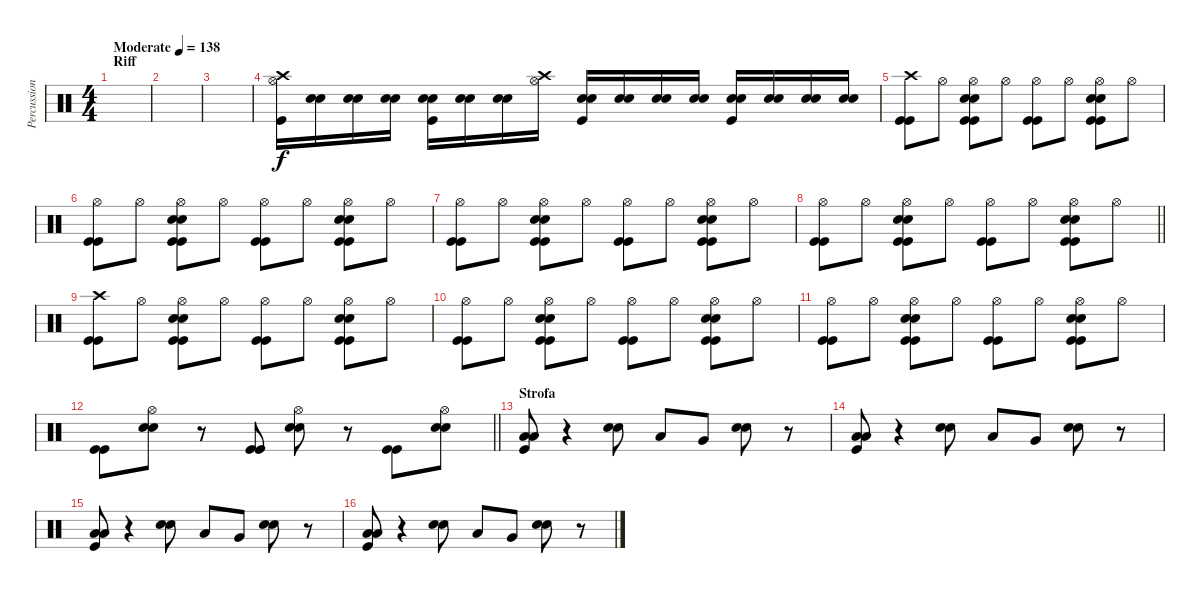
\track ("Percussioni" "Percussion") {instrument percussion}
\staff {score}
\articulation defaults
\ts (4 4)
\section ("" "Riff")
\tempo (138 "Moderate")
\clef neutral
\ks c
|
|
|
("Crash high (hit)" "Hi-Hat (open)" "Kick (hit)").16 ("Snare (hit) 2" "Snare (hit) 2").16 ("Snare (hit) 2" "Snare (hit) 2").16 ("Snare (hit) 2" "Snare (hit) 2").16 ("Snare (hit) 2" "Snare (hit) 2" "Kick (hit)").16 ("Snare (hit) 2" "Snare (hit) 2").16 ("Snare (hit) 2" "Snare (hit) 2").16 ("Hi-Hat (open)" "Crash high (hit)").16 ("Snare (hit) 2" "Snare (hit) 2" "Kick (hit)").16 ("Snare (hit) 2" "Snare (hit) 2").16 ("Snare (hit) 2" "Snare (hit) 2").16 ("Snare (hit) 2" "Snare (hit) 2").16 ("Snare (hit) 2" "Snare (hit) 2" "Kick (hit)").16 ("Snare (hit) 2" "Snare (hit) 2").16 ("Snare (hit) 2" "Snare (hit) 2").16 ("Snare (hit) 2" "Snare (hit) 2").16 |
("Crash high (hit)" "Kick (hit)" "Kick (hit)").8 "Hi-Hat (open)".8 ("Hi-Hat (open)" "Snare (hit) 2" "Snare (hit) 2" "Kick (hit)" "Kick (hit)").8 "Hi-Hat (open)".8 ("Hi-Hat (open)" "Kick (hit)" "Kick (hit)").8 "Hi-Hat (open)".8 ("Hi-Hat (open)" "Snare (hit) 2" "Snare (hit) 2" "Kick (hit)" "Kick (hit)").8 "Hi-Hat (open)".8 |
("Hi-Hat (open)" "Kick (hit)" "Kick (hit)").8 "Hi-Hat (open)".8 ("Hi-Hat (open)" "Snare (hit) 2" "Snare (hit) 2" "Kick (hit)" "Kick (hit)").8 "Hi-Hat (open)".8 ("Hi-Hat (open)" "Kick (hit)" "Kick (hit)").8 "Hi-Hat (open)".8 ("Hi-Hat (open)" "Snare (hit) 2" "Snare (hit) 2" "Kick (hit)" "Kick (hit)").8 "Hi-Hat (open)".8 |
("Hi-Hat (open)" "Kick (hit)" "Kick (hit)").8 "Hi-Hat (open)".8 ("Hi-Hat (open)" "Snare (hit) 2" "Snare (hit) 2" "Kick (hit)" "Kick (hit)").8 "Hi-Hat (open)".8 ("Hi-Hat (open)" "Kick (hit)" "Kick (hit)").8 "Hi-Hat (open)".8 ("Hi-Hat (open)" "Snare (hit) 2" "Snare (hit) 2" "Kick (hit)" "Kick (hit)").8 "Hi-Hat (open)".8 |
\barLineRight lightlight
("Hi-Hat (open)" "Kick (hit)" "Kick (hit)").8 "Hi-Hat (open)".8 ("Hi-Hat (open)" "Snare (hit) 2" "Snare (hit) 2" "Kick (hit)" "Kick (hit)").8 "Hi-Hat (open)".8 ("Hi-Hat (open)" "Kick (hit)" "Kick (hit)").8 "Hi-Hat (open)".8 ("Hi-Hat (open)" "Snare (hit) 2" "Snare (hit) 2" "Kick (hit)" "Kick (hit)").8 "Hi-Hat (open)".8 |
("Crash high (hit)" "Kick (hit)" "Kick (hit)").8 "Hi-Hat (open)".8 ("Hi-Hat (open)" "Snare (hit) 2" "Snare (hit) 2" "Kick (hit)" "Kick (hit)").8 "Hi-Hat (open)".8 ("Hi-Hat (open)" "Kick (hit)" "Kick (hit)").8 "Hi-Hat (open)".8 ("Hi-Hat (open)" "Snare (hit) 2" "Snare (hit) 2" "Kick (hit)" "Kick (hit)").8 "Hi-Hat (open)".8 |
("Hi-Hat (open)" "Kick (hit)" "Kick (hit)").8 "Hi-Hat (open)".8 ("Hi-Hat (open)" "Snare (hit) 2" "Snare (hit) 2" "Kick (hit)" "Kick (hit)").8 "Hi-Hat (open)".8 ("Hi-Hat (open)" "Kick (hit)" "Kick (hit)").8 "Hi-Hat (open)".8 ("Hi-Hat (open)" "Snare (hit) 2" "Snare (hit) 2" "Kick (hit)" "Kick (hit)").8 "Hi-Hat (open)".8 |
("Hi-Hat (open)" "Kick (hit)" "Kick (hit)").8 "Hi-Hat (open)".8 ("Hi-Hat (open)" "Snare (hit) 2" "Snare (hit) 2" "Kick (hit)" "Kick (hit)").8 "Hi-Hat (open)".8 ("Hi-Hat (open)" "Kick (hit)" "Kick (hit)").8 "Hi-Hat (open)".8 ("Hi-Hat (open)" "Snare (hit) 2" "Snare (hit) 2" "Kick (hit)" "Kick (hit)").8 "Hi-Hat (open)".8 |
\barLineRight lightlight
("Kick (hit)" "Kick (hit)").8 ("Hi-Hat (open)" "Snare (hit) 2" "Snare (hit) 2").8 r.8 ("Kick (hit)" "Kick (hit)").8 ("Hi-Hat (open)" "Snare (hit) 2" "Snare (hit) 2").8 r.8 ("Kick (hit)" "Kick (hit)").8 ("Hi-Hat (open)" "Snare (hit) 2" "Snare (hit) 2").8 |
\section ("" "Strofa")
("Low Floor Tom (hit)" "Low Floor Tom (hit)" "Kick (hit)").8 r.4 ("Snare (hit) 2" "Snare (hit) 2").8 "Low Tom (hit)".8 "Very Low Tom (hit)".8 ("Snare (hit) 2" "Snare (hit) 2").8 r.8 |
("Low Floor Tom (hit)" "Low Floor Tom (hit)" "Kick (hit)").8 r.4 ("Snare (hit) 2" "Snare (hit) 2").8 "Low Tom (hit)".8 "Very Low Tom (hit)".8 ("Snare (hit) 2" "Snare (hit) 2").8 r.8 |
("Low Floor Tom (hit)" "Low Floor Tom (hit)" "Kick (hit)").8 r.4 ("Snare (hit) 2" "Snare (hit) 2").8 "Low Tom (hit)".8 "Very Low Tom (hit)".8 ("Snare (hit) 2" "Snare (hit) 2").8 r.8 |
("Low Floor Tom (hit)" "Low Floor Tom (hit)" "Kick (hit)").8 r.4 ("Snare (hit) 2" "Snare (hit) 2").8 "Low Tom (hit)".8 "Very Low Tom (hit)".8 ("Snare (hit) 2" "Snare (hit) 2").8 r.8
